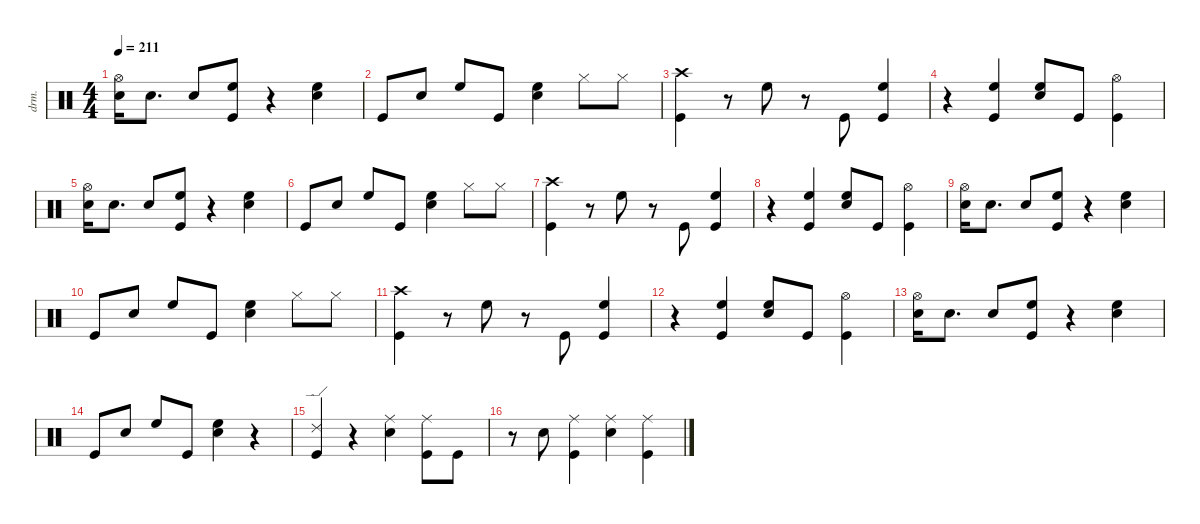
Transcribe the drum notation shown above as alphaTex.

\defaultSystemsLayout 4
\hideDynamics
\bracketExtendMode nobrackets
\otherSystemsTrackNameOrientation horizontal
\track ("Drums" "drm.") {instrument percussion}
\staff {score}
\articulation defaults
\ts (4 4)
\tempo 211
\clef neutral
\ks c
("Snare (hit) 2" "Hi-Hat (open)"{acc #}).16{dy f beam Down} "Snare (hit) 2".8{d dy mp beam Down} "Snare (hit) 2".8{dy ff beam Up} ("Kick (hit)" "High Floor Tom (hit)").8{beam Up} r.4{beam Up} ("Snare (hit) 2" "High Floor Tom (hit)").4{beam Down} |
"Kick (hit)".8{beam Up} "Snare (hit) 2".8{beam Up} "High Floor Tom (hit)".8{dy mf beam Up} "Kick (hit)".8{dy ff beam Up} ("Snare (hit) 2" "High Floor Tom (hit)").4{beam Down} "Hi-Hat (closed)"{acc #}.8{beam Down} "Hi-Hat (closed)"{acc #}.8{beam Down} |
("Kick (hit)" "Crash high (hit)"{acc #}).4{beam Down} r.8{beam Down} "High Floor Tom (hit)".8{dy f beam Down} r.8{beam Down} "Kick (hit)".8{dy mf beam Up} ("Kick (hit)" "High Floor Tom (hit)").4{dy ff beam Up} |
r.4{beam Down} ("Kick (hit)" "High Floor Tom (hit)").4{beam Up} ("Snare (hit) 2" "High Floor Tom (hit)").8{beam Up} "Kick (hit)".8{dy mf beam Up} ("Kick (hit)" "Hi-Hat (open)"{acc #}).4{dy ff beam Down} |
("Snare (hit) 2" "Hi-Hat (open)"{acc #}).16{dy f beam Down} "Snare (hit) 2".8{d dy mp beam Down} "Snare (hit) 2".8{dy ff beam Up} ("Kick (hit)" "High Floor Tom (hit)").8{beam Up} r.4{beam Up} ("Snare (hit) 2" "High Floor Tom (hit)").4{beam Down} |
"Kick (hit)".8{beam Up} "Snare (hit) 2".8{beam Up} "High Floor Tom (hit)".8{dy mf beam Up} "Kick (hit)".8{dy ff beam Up} ("Snare (hit) 2" "High Floor Tom (hit)").4{beam Down} "Hi-Hat (closed)"{acc #}.8{beam Down} "Hi-Hat (closed)"{acc #}.8{beam Down} |
("Kick (hit)" "Crash high (hit)"{acc #}).4{beam Down} r.8{beam Down} "High Floor Tom (hit)".8{dy f beam Down} r.8{beam Down} "Kick (hit)".8{dy mf beam Up} ("Kick (hit)" "High Floor Tom (hit)").4{dy ff beam Up} |
r.4{beam Down} ("Kick (hit)" "High Floor Tom (hit)").4{beam Up} ("Snare (hit) 2" "High Floor Tom (hit)").8{beam Up} "Kick (hit)".8{dy mf beam Up} ("Kick (hit)" "Hi-Hat (open)"{acc #}).4{dy ff beam Down} |
("Snare (hit) 2" "Hi-Hat (open)"{acc #}).16{dy f beam Down} "Snare (hit) 2".8{d dy mp beam Down} "Snare (hit) 2".8{dy ff beam Up} ("Kick (hit)" "High Floor Tom (hit)").8{beam Up} r.4{beam Up} ("Snare (hit) 2" "High Floor Tom (hit)").4{beam Down} |
"Kick (hit)".8{beam Up} "Snare (hit) 2".8{beam Up} "High Floor Tom (hit)".8{dy mf beam Up} "Kick (hit)".8{dy ff beam Up} ("Snare (hit) 2" "High Floor Tom (hit)").4{beam Down} "Hi-Hat (closed)"{acc #}.8{beam Down} "Hi-Hat (closed)"{acc #}.8{beam Down} |
("Kick (hit)" "Crash high (hit)"{acc #}).4{beam Down} r.8{beam Down} "High Floor Tom (hit)".8{dy f beam Down} r.8{beam Down} "Kick (hit)".8{dy mf beam Up} ("Kick (hit)" "High Floor Tom (hit)").4{dy ff beam Up} |
r.4{beam Down} ("Kick (hit)" "High Floor Tom (hit)").4{beam Up} ("Snare (hit) 2" "High Floor Tom (hit)").8{beam Up} "Kick (hit)".8{dy mf beam Up} ("Kick (hit)" "Hi-Hat (open)"{acc #}).4{dy ff beam Down} |
("Snare (hit) 2" "Hi-Hat (open)"{acc #}).16{dy f beam Down} "Snare (hit) 2".8{d dy mp beam Down} "Snare (hit) 2".8{dy ff beam Up} ("Kick (hit)" "High Floor Tom (hit)").8{beam Up} r.4{beam Up} ("Snare (hit) 2" "High Floor Tom (hit)").4{beam Down} |
"Kick (hit)".8{beam Up} "Snare (hit) 2".8{beam Up} "High Floor Tom (hit)".8{dy mf beam Up} "Kick (hit)".8{dy ff beam Up} ("Snare (hit) 2" "High Floor Tom (hit)").4{dy fff beam Down} r.4{beam Down} |
("Kick (hit)" "Ride (edge) 2").4{beam Up} r.4{beam Up} ("Snare (hit) 2" "Ride (middle)"{acc #}).4{dy ff beam Down} ("Kick (hit)" "Ride (middle)"{acc #}).8{dy f beam Down} "Kick (hit)".8{dy fff beam Down} |
r.8{beam Down} "Snare (hit) 2".8{dy p beam Down} ("Kick (hit)" "Ride (middle)"{acc #}).4{dy ff beam Down} ("Snare (hit) 2" "Ride (middle)"{acc #}).4{beam Down} ("Kick (hit)" "Ride (middle)"{acc #}).4{dy mf beam Down}
